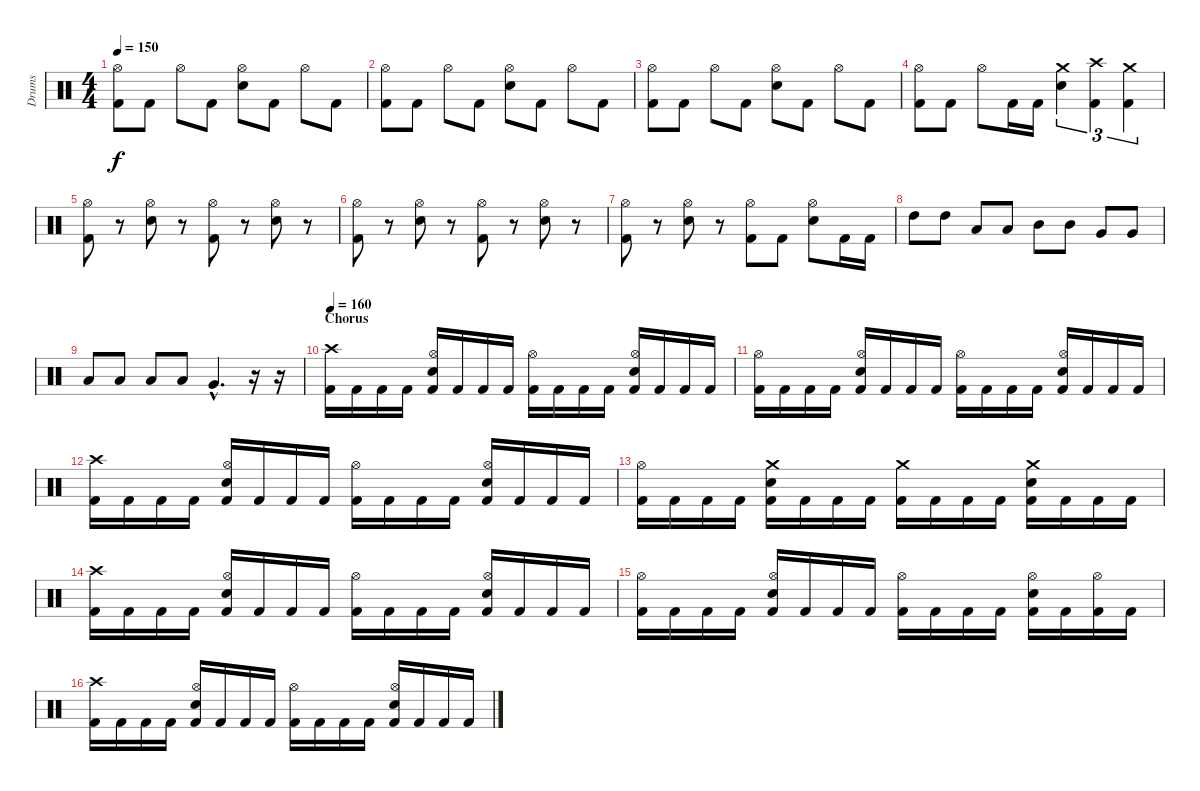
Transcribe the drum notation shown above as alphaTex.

\track ("Drums" "Drums") {instrument percussion}
\staff {score}
\articulation defaults
\ts (4 4)
\tempo 150
\clef neutral
\ks c
("Kick (hit) 2" "Hi-Hat (open)").8{dy f} "Kick (hit) 2".8 "Hi-Hat (open)".8 "Kick (hit) 2".8 ("Electric Snare (hit)" "Hi-Hat (open)").8 "Kick (hit) 2".8 "Hi-Hat (open)".8 "Kick (hit) 2".8 |
("Kick (hit) 2" "Hi-Hat (open)").8 "Kick (hit) 2".8 "Hi-Hat (open)".8 "Kick (hit) 2".8 ("Electric Snare (hit)" "Hi-Hat (open)").8 "Kick (hit) 2".8 "Hi-Hat (open)".8 "Kick (hit) 2".8 |
("Kick (hit) 2" "Hi-Hat (open)").8 "Kick (hit) 2".8 "Hi-Hat (open)".8 "Kick (hit) 2".8 ("Electric Snare (hit)" "Hi-Hat (open)").8 "Kick (hit) 2".8 "Hi-Hat (open)".8 "Kick (hit) 2".8 |
("Kick (hit) 2" "Hi-Hat (open)").8 "Kick (hit) 2".8 "Hi-Hat (open)".8 "Kick (hit) 2".16 "Kick (hit) 2".16 ("Electric Snare (hit)" "Crash medium (hit)").4{tu (3 2)} ("Kick (hit) 2" "Crash high (hit)").4{tu (3 2)} ("Kick (hit) 2" "Crash medium (hit)").4{tu (3 2)} |
("Kick (hit) 2" "Hi-Hat (open)").8 r.8 ("Electric Snare (hit)" "Hi-Hat (open)").8 r.8 ("Kick (hit) 2" "Hi-Hat (open)").8 r.8 ("Electric Snare (hit)" "Hi-Hat (open)").8 r.8 |
("Kick (hit) 2" "Hi-Hat (open)").8 r.8 ("Electric Snare (hit)" "Hi-Hat (open)").8 r.8 ("Kick (hit) 2" "Hi-Hat (open)").8 r.8 ("Electric Snare (hit)" "Hi-Hat (open)").8 r.8 |
("Kick (hit) 2" "Hi-Hat (open)").8 r.8 ("Electric Snare (hit)" "Hi-Hat (open)").8 r.8 ("Kick (hit) 2" "Hi-Hat (open)").8 "Kick (hit) 2".8 ("Electric Snare (hit)" "Hi-Hat (open)").8 "Kick (hit) 2".16 "Kick (hit) 2".16 |
"High Tom (hit)".8 "High Tom (hit)".8 "Low Tom (hit)".8 "Low Tom (hit)".8 "Mid Tom (hit)".8 "Mid Tom (hit)".8 "Very Low Tom (hit)".8 "Very Low Tom (hit)".8 |
"Low Tom (hit)".8 "Low Tom (hit)".8 "Low Floor Tom (hit)".8 "Low Floor Tom (hit)".8 "Very Low Tom (hit)"{hac}.4{d} r.16 r.16 |
\section ("" "Chorus")
\tempo 160
("Kick (hit) 2" "Crash high (hit)").16 "Kick (hit) 2".16 "Kick (hit) 2".16 "Kick (hit) 2".16 ("Kick (hit) 2" "Electric Snare (hit)" "Hi-Hat (open)").16 "Kick (hit) 2".16 "Kick (hit) 2".16 "Kick (hit) 2".16 ("Kick (hit) 2" "Hi-Hat (open)").16 "Kick (hit) 2".16 "Kick (hit) 2".16 "Kick (hit) 2".16 ("Kick (hit) 2" "Electric Snare (hit)" "Hi-Hat (open)").16 "Kick (hit) 2".16 "Kick (hit) 2".16 "Kick (hit) 2".16 |
("Kick (hit) 2" "Hi-Hat (open)").16 "Kick (hit) 2".16 "Kick (hit) 2".16 "Kick (hit) 2".16 ("Kick (hit) 2" "Electric Snare (hit)" "Hi-Hat (open)").16 "Kick (hit) 2".16 "Kick (hit) 2".16 "Kick (hit) 2".16 ("Kick (hit) 2" "Hi-Hat (open)").16 "Kick (hit) 2".16 "Kick (hit) 2".16 "Kick (hit) 2".16 ("Kick (hit) 2" "Electric Snare (hit)" "Hi-Hat (open)").16 "Kick (hit) 2".16 "Kick (hit) 2".16 "Kick (hit) 2".16 |
("Kick (hit) 2" "Crash high (hit)").16 "Kick (hit) 2".16 "Kick (hit) 2".16 "Kick (hit) 2".16 ("Kick (hit) 2" "Electric Snare (hit)" "Hi-Hat (open)").16 "Kick (hit) 2".16 "Kick (hit) 2".16 "Kick (hit) 2".16 ("Kick (hit) 2" "Hi-Hat (open)").16 "Kick (hit) 2".16 "Kick (hit) 2".16 "Kick (hit) 2".16 ("Kick (hit) 2" "Electric Snare (hit)" "Hi-Hat (open)").16 "Kick (hit) 2".16 "Kick (hit) 2".16 "Kick (hit) 2".16 |
("Kick (hit) 2" "Hi-Hat (open)").16 "Kick (hit) 2".16 "Kick (hit) 2".16 "Kick (hit) 2".16 ("Kick (hit) 2" "Electric Snare (hit)" "Crash medium (hit)").16 "Kick (hit) 2".16 "Kick (hit) 2".16 "Kick (hit) 2".16 ("Kick (hit) 2" "Crash medium (hit)").16 "Kick (hit) 2".16 "Kick (hit) 2".16 "Kick (hit) 2".16 ("Kick (hit) 2" "Electric Snare (hit)" "Crash medium (hit)").16 "Kick (hit) 2".16 "Kick (hit) 2".16 "Kick (hit) 2".16 |
("Kick (hit) 2" "Crash high (hit)").16 "Kick (hit) 2".16 "Kick (hit) 2".16 "Kick (hit) 2".16 ("Kick (hit) 2" "Electric Snare (hit)" "Hi-Hat (open)").16 "Kick (hit) 2".16 "Kick (hit) 2".16 "Kick (hit) 2".16 ("Kick (hit) 2" "Hi-Hat (open)").16 "Kick (hit) 2".16 "Kick (hit) 2".16 "Kick (hit) 2".16 ("Kick (hit) 2" "Electric Snare (hit)" "Hi-Hat (open)").16 "Kick (hit) 2".16 "Kick (hit) 2".16 "Kick (hit) 2".16 |
("Kick (hit) 2" "Hi-Hat (open)").16 "Kick (hit) 2".16 "Kick (hit) 2".16 "Kick (hit) 2".16 ("Kick (hit) 2" "Electric Snare (hit)" "Hi-Hat (open)").16 "Kick (hit) 2".16 "Kick (hit) 2".16 "Kick (hit) 2".16 ("Kick (hit) 2" "Hi-Hat (open)").16 "Kick (hit) 2".16 "Kick (hit) 2".16 "Kick (hit) 2".16 ("Kick (hit) 2" "Electric Snare (hit)" "Hi-Hat (open)").16 "Kick (hit) 2".16 ("Kick (hit) 2" "Hi-Hat (open)").16 "Kick (hit) 2".16 |
("Kick (hit) 2" "Crash high (hit)").16 "Kick (hit) 2".16 "Kick (hit) 2".16 "Kick (hit) 2".16 ("Kick (hit) 2" "Electric Snare (hit)" "Hi-Hat (open)").16 "Kick (hit) 2".16 "Kick (hit) 2".16 "Kick (hit) 2".16 ("Kick (hit) 2" "Hi-Hat (open)").16 "Kick (hit) 2".16 "Kick (hit) 2".16 "Kick (hit) 2".16 ("Kick (hit) 2" "Electric Snare (hit)" "Hi-Hat (open)").16 "Kick (hit) 2".16 "Kick (hit) 2".16 "Kick (hit) 2".16
